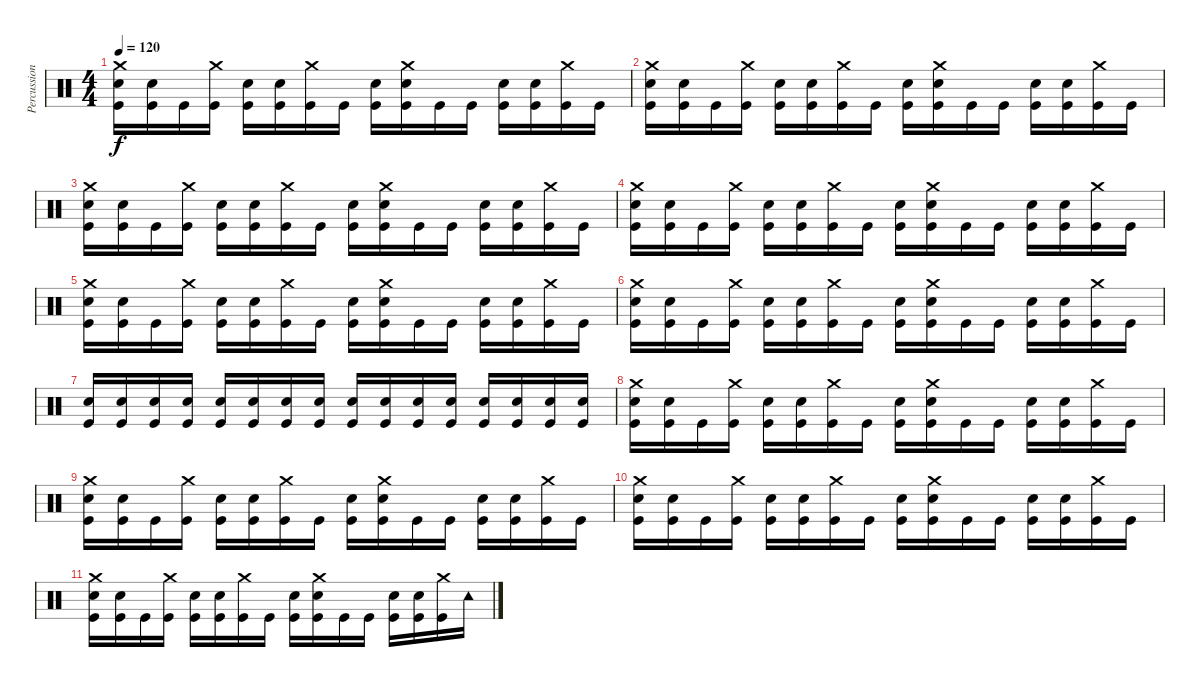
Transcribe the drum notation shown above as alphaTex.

\track ("Percussion" "Percussion") {instrument percussion}
\staff {score}
\articulation defaults
\ts (4 4)
\tempo 120
\clef neutral
\ks c
("Crash medium (hit)" "Snare (hit) 2" "Kick (hit)").16{dy f} ("Snare (hit) 2" "Kick (hit)").16 "Kick (hit)".16 ("Crash medium (hit)" "Kick (hit)").16 ("Snare (hit) 2" "Kick (hit)").16 ("Snare (hit) 2" "Kick (hit)").16 ("Crash medium (hit)" "Kick (hit)").16 "Kick (hit)".16 ("Snare (hit) 2" "Kick (hit)").16 ("Crash medium (hit)" "Snare (hit) 2" "Kick (hit)").16 "Kick (hit)".16 "Kick (hit)".16 ("Snare (hit) 2" "Kick (hit)").16 ("Snare (hit) 2" "Kick (hit)").16 ("Crash medium (hit)" "Kick (hit)").16 "Kick (hit)".16 |
("Crash medium (hit)" "Snare (hit) 2" "Kick (hit)").16 ("Snare (hit) 2" "Kick (hit)").16 "Kick (hit)".16 ("Crash medium (hit)" "Kick (hit)").16 ("Snare (hit) 2" "Kick (hit)").16 ("Snare (hit) 2" "Kick (hit)").16 ("Crash medium (hit)" "Kick (hit)").16 "Kick (hit)".16 ("Snare (hit) 2" "Kick (hit)").16 ("Crash medium (hit)" "Snare (hit) 2" "Kick (hit)").16 "Kick (hit)".16 "Kick (hit)".16 ("Snare (hit) 2" "Kick (hit)").16 ("Snare (hit) 2" "Kick (hit)").16 ("Crash medium (hit)" "Kick (hit)").16 "Kick (hit)".16 |
("Crash medium (hit)" "Snare (hit) 2" "Kick (hit)").16 ("Snare (hit) 2" "Kick (hit)").16 "Kick (hit)".16 ("Crash medium (hit)" "Kick (hit)").16 ("Snare (hit) 2" "Kick (hit)").16 ("Snare (hit) 2" "Kick (hit)").16 ("Crash medium (hit)" "Kick (hit)").16 "Kick (hit)".16 ("Snare (hit) 2" "Kick (hit)").16 ("Crash medium (hit)" "Snare (hit) 2" "Kick (hit)").16 "Kick (hit)".16 "Kick (hit)".16 ("Snare (hit) 2" "Kick (hit)").16 ("Snare (hit) 2" "Kick (hit)").16 ("Crash medium (hit)" "Kick (hit)").16 "Kick (hit)".16 |
("Crash medium (hit)" "Snare (hit) 2" "Kick (hit)").16 ("Snare (hit) 2" "Kick (hit)").16 "Kick (hit)".16 ("Crash medium (hit)" "Kick (hit)").16 ("Snare (hit) 2" "Kick (hit)").16 ("Snare (hit) 2" "Kick (hit)").16 ("Crash medium (hit)" "Kick (hit)").16 "Kick (hit)".16 ("Snare (hit) 2" "Kick (hit)").16 ("Crash medium (hit)" "Snare (hit) 2" "Kick (hit)").16 "Kick (hit)".16 "Kick (hit)".16 ("Snare (hit) 2" "Kick (hit)").16 ("Snare (hit) 2" "Kick (hit)").16 ("Crash medium (hit)" "Kick (hit)").16 "Kick (hit)".16 |
("Crash medium (hit)" "Snare (hit) 2" "Kick (hit)").16 ("Snare (hit) 2" "Kick (hit)").16 "Kick (hit)".16 ("Crash medium (hit)" "Kick (hit)").16 ("Snare (hit) 2" "Kick (hit)").16 ("Snare (hit) 2" "Kick (hit)").16 ("Crash medium (hit)" "Kick (hit)").16 "Kick (hit)".16 ("Snare (hit) 2" "Kick (hit)").16 ("Crash medium (hit)" "Snare (hit) 2" "Kick (hit)").16 "Kick (hit)".16 "Kick (hit)".16 ("Snare (hit) 2" "Kick (hit)").16 ("Snare (hit) 2" "Kick (hit)").16 ("Crash medium (hit)" "Kick (hit)").16 "Kick (hit)".16 |
("Crash medium (hit)" "Snare (hit) 2" "Kick (hit)").16 ("Snare (hit) 2" "Kick (hit)").16 "Kick (hit)".16 ("Crash medium (hit)" "Kick (hit)").16 ("Snare (hit) 2" "Kick (hit)").16 ("Snare (hit) 2" "Kick (hit)").16 ("Crash medium (hit)" "Kick (hit)").16 "Kick (hit)".16 ("Snare (hit) 2" "Kick (hit)").16 ("Crash medium (hit)" "Snare (hit) 2" "Kick (hit)").16 "Kick (hit)".16 "Kick (hit)".16 ("Snare (hit) 2" "Kick (hit)").16 ("Snare (hit) 2" "Kick (hit)").16 ("Crash medium (hit)" "Kick (hit)").16 "Kick (hit)".16 |
("Snare (hit) 2" "Kick (hit)").16 ("Snare (hit) 2" "Kick (hit)").16 ("Snare (hit) 2" "Kick (hit)").16 ("Snare (hit) 2" "Kick (hit)").16 ("Snare (hit) 2" "Kick (hit)").16 ("Snare (hit) 2" "Kick (hit)").16 ("Snare (hit) 2" "Kick (hit)").16 ("Snare (hit) 2" "Kick (hit)").16 ("Snare (hit) 2" "Kick (hit)").16 ("Snare (hit) 2" "Kick (hit)").16 ("Snare (hit) 2" "Kick (hit)").16 ("Snare (hit) 2" "Kick (hit)").16 ("Snare (hit) 2" "Kick (hit)").16 ("Snare (hit) 2" "Kick (hit)").16 ("Snare (hit) 2" "Kick (hit)").16 ("Snare (hit) 2" "Kick (hit)").16 |
("Crash medium (hit)" "Snare (hit) 2" "Kick (hit)").16 ("Snare (hit) 2" "Kick (hit)").16 "Kick (hit)".16 ("Crash medium (hit)" "Kick (hit)").16 ("Snare (hit) 2" "Kick (hit)").16 ("Snare (hit) 2" "Kick (hit)").16 ("Crash medium (hit)" "Kick (hit)").16 "Kick (hit)".16 ("Snare (hit) 2" "Kick (hit)").16 ("Crash medium (hit)" "Snare (hit) 2" "Kick (hit)").16 "Kick (hit)".16 "Kick (hit)".16 ("Snare (hit) 2" "Kick (hit)").16 ("Snare (hit) 2" "Kick (hit)").16 ("Crash medium (hit)" "Kick (hit)").16 "Kick (hit)".16 |
("Crash medium (hit)" "Snare (hit) 2" "Kick (hit)").16 ("Snare (hit) 2" "Kick (hit)").16 "Kick (hit)".16 ("Crash medium (hit)" "Kick (hit)").16 ("Snare (hit) 2" "Kick (hit)").16 ("Snare (hit) 2" "Kick (hit)").16 ("Crash medium (hit)" "Kick (hit)").16 "Kick (hit)".16 ("Snare (hit) 2" "Kick (hit)").16 ("Crash medium (hit)" "Snare (hit) 2" "Kick (hit)").16 "Kick (hit)".16 "Kick (hit)".16 ("Snare (hit) 2" "Kick (hit)").16 ("Snare (hit) 2" "Kick (hit)").16 ("Crash medium (hit)" "Kick (hit)").16 "Kick (hit)".16 |
("Crash medium (hit)" "Snare (hit) 2" "Kick (hit)").16 ("Snare (hit) 2" "Kick (hit)").16 "Kick (hit)".16 ("Crash medium (hit)" "Kick (hit)").16 ("Snare (hit) 2" "Kick (hit)").16 ("Snare (hit) 2" "Kick (hit)").16 ("Crash medium (hit)" "Kick (hit)").16 "Kick (hit)".16 ("Snare (hit) 2" "Kick (hit)").16 ("Crash medium (hit)" "Snare (hit) 2" "Kick (hit)").16 "Kick (hit)".16 "Kick (hit)".16 ("Snare (hit) 2" "Kick (hit)").16 ("Snare (hit) 2" "Kick (hit)").16 ("Crash medium (hit)" "Kick (hit)").16 "Kick (hit)".16 |
("Crash medium (hit)" "Snare (hit) 2" "Kick (hit)").16 ("Snare (hit) 2" "Kick (hit)").16 "Kick (hit)".16 ("Crash medium (hit)" "Kick (hit)").16 ("Snare (hit) 2" "Kick (hit)").16 ("Snare (hit) 2" "Kick (hit)").16 ("Crash medium (hit)" "Kick (hit)").16 "Kick (hit)".16 ("Snare (hit) 2" "Kick (hit)").16 ("Crash medium (hit)" "Snare (hit) 2" "Kick (hit)").16 "Kick (hit)".16 "Kick (hit)".16 ("Snare (hit) 2" "Kick (hit)").16 ("Snare (hit) 2" "Kick (hit)").16 ("Crash medium (hit)" "Kick (hit)").16 "Tambourine (hit)".16
